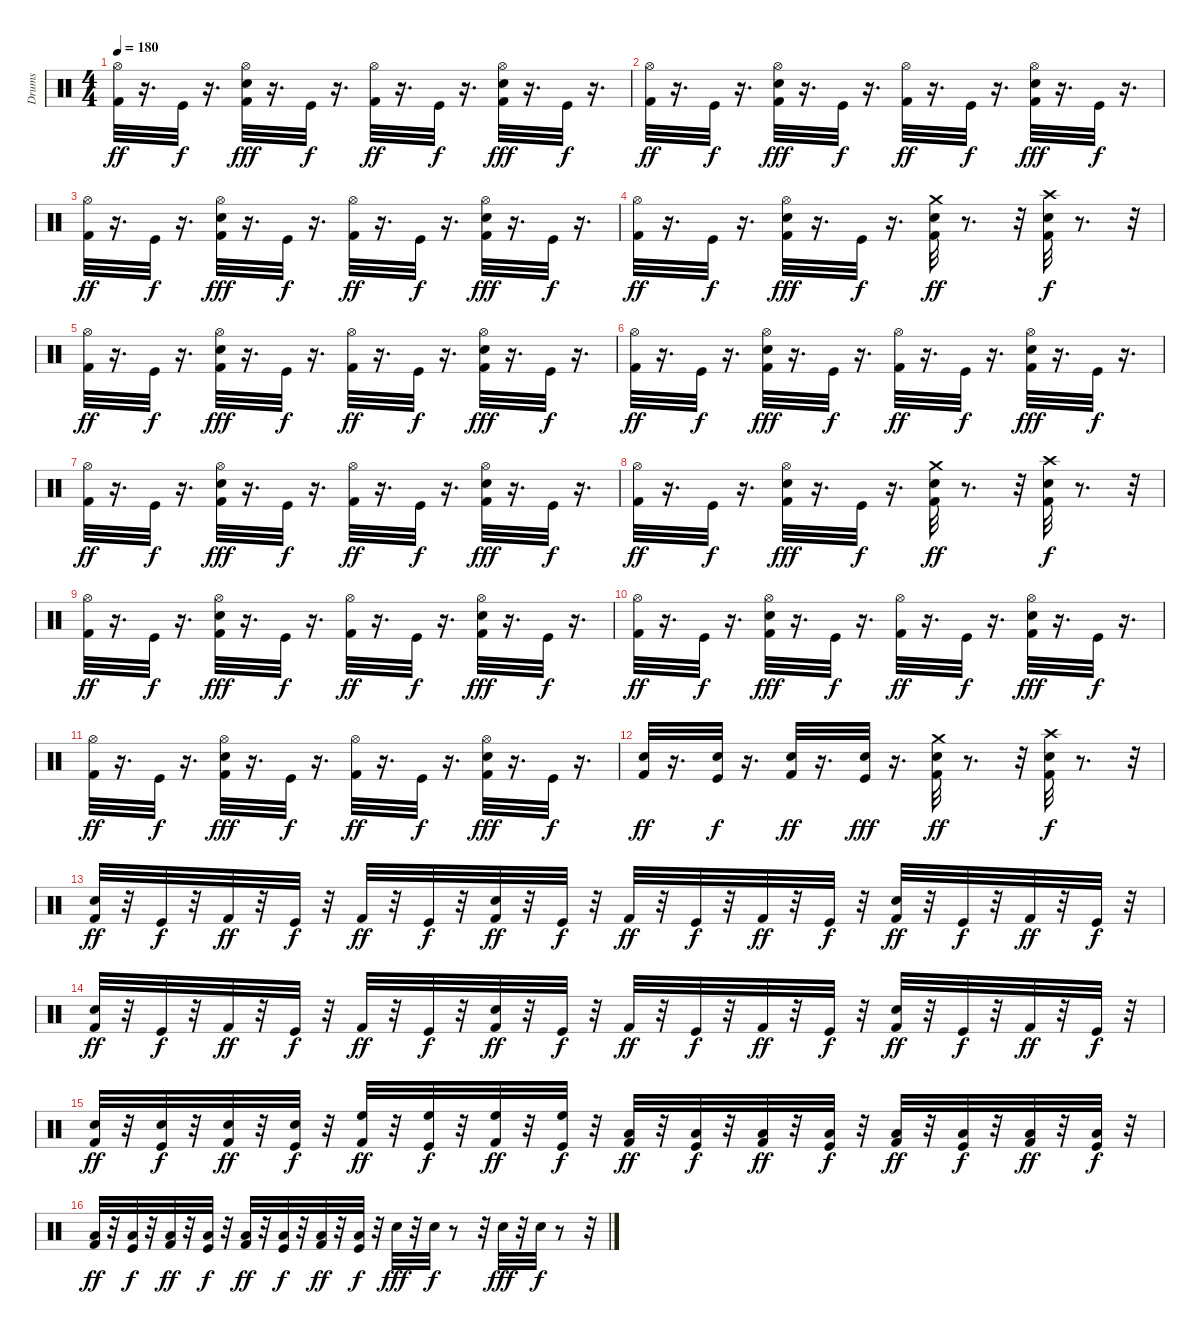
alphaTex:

\track ("Drums" "Drums") {instrument percussion}
\staff {score}
\articulation defaults
\ts (4 4)
\tempo 180
\clef neutral
\ks c
("Hi-Hat (open)" "Kick (hit) 2").32{dy ff} r.16{d} "Kick (hit)".32{dy f} r.16{d} ("Kick (hit) 2" "Snare (hit) 2" "Hi-Hat (open)").32{dy fff} r.16{d} "Kick (hit)".32{dy f} r.16{d} ("Kick (hit) 2" "Hi-Hat (open)").32{dy ff} r.16{d} "Kick (hit)".32{dy f} r.16{d} ("Kick (hit) 2" "Snare (hit) 2" "Hi-Hat (open)").32{dy fff} r.16{d} "Kick (hit)".32{dy f} r.16{d} |
("Kick (hit) 2" "Hi-Hat (open)").32{dy ff} r.16{d} "Kick (hit)".32{dy f} r.16{d} ("Kick (hit) 2" "Snare (hit) 2" "Hi-Hat (open)").32{dy fff} r.16{d} "Kick (hit)".32{dy f} r.16{d} ("Kick (hit) 2" "Hi-Hat (open)").32{dy ff} r.16{d} "Kick (hit)".32{dy f} r.16{d} ("Kick (hit) 2" "Snare (hit) 2" "Hi-Hat (open)").32{dy fff} r.16{d} "Kick (hit)".32{dy f} r.16{d} |
("Kick (hit) 2" "Hi-Hat (open)").32{dy ff} r.16{d} "Kick (hit)".32{dy f} r.16{d} ("Kick (hit) 2" "Snare (hit) 2" "Hi-Hat (open)").32{dy fff} r.16{d} "Kick (hit)".32{dy f} r.16{d} ("Kick (hit) 2" "Hi-Hat (open)").32{dy ff} r.16{d} "Kick (hit)".32{dy f} r.16{d} ("Kick (hit) 2" "Snare (hit) 2" "Hi-Hat (open)").32{dy fff} r.16{d} "Kick (hit)".32{dy f} r.16{d} |
("Kick (hit) 2" "Hi-Hat (open)").32{dy ff} r.16{d} "Kick (hit)".32{dy f} r.16{d} ("Kick (hit) 2" "Snare (hit) 2" "Hi-Hat (open)").32{dy fff} r.16{d} "Kick (hit)".32{dy f} r.16{d} ("Crash medium (hit)" "Snare (hit) 2" "Kick (hit) 2").32{dy ff} r.8{d} r.32 ("Crash high (hit)" "Snare (hit) 2" "Kick (hit) 2").32{dy f} r.8{d} r.32 |
("Hi-Hat (open)" "Kick (hit) 2").32{dy ff} r.16{d} "Kick (hit)".32{dy f} r.16{d} ("Kick (hit) 2" "Snare (hit) 2" "Hi-Hat (open)").32{dy fff} r.16{d} "Kick (hit)".32{dy f} r.16{d} ("Kick (hit) 2" "Hi-Hat (open)").32{dy ff} r.16{d} "Kick (hit)".32{dy f} r.16{d} ("Kick (hit) 2" "Snare (hit) 2" "Hi-Hat (open)").32{dy fff} r.16{d} "Kick (hit)".32{dy f} r.16{d} |
("Kick (hit) 2" "Hi-Hat (open)").32{dy ff} r.16{d} "Kick (hit)".32{dy f} r.16{d} ("Kick (hit) 2" "Snare (hit) 2" "Hi-Hat (open)").32{dy fff} r.16{d} "Kick (hit)".32{dy f} r.16{d} ("Kick (hit) 2" "Hi-Hat (open)").32{dy ff} r.16{d} "Kick (hit)".32{dy f} r.16{d} ("Kick (hit) 2" "Snare (hit) 2" "Hi-Hat (open)").32{dy fff} r.16{d} "Kick (hit)".32{dy f} r.16{d} |
("Kick (hit) 2" "Hi-Hat (open)").32{dy ff} r.16{d} "Kick (hit)".32{dy f} r.16{d} ("Kick (hit) 2" "Snare (hit) 2" "Hi-Hat (open)").32{dy fff} r.16{d} "Kick (hit)".32{dy f} r.16{d} ("Kick (hit) 2" "Hi-Hat (open)").32{dy ff} r.16{d} "Kick (hit)".32{dy f} r.16{d} ("Kick (hit) 2" "Snare (hit) 2" "Hi-Hat (open)").32{dy fff} r.16{d} "Kick (hit)".32{dy f} r.16{d} |
("Kick (hit) 2" "Hi-Hat (open)").32{dy ff} r.16{d} "Kick (hit)".32{dy f} r.16{d} ("Kick (hit) 2" "Snare (hit) 2" "Hi-Hat (open)").32{dy fff} r.16{d} "Kick (hit)".32{dy f} r.16{d} ("Crash medium (hit)" "Snare (hit) 2" "Kick (hit) 2").32{dy ff} r.8{d} r.32 ("Crash high (hit)" "Snare (hit) 2" "Kick (hit) 2").32{dy f} r.8{d} r.32 |
("Hi-Hat (open)" "Kick (hit) 2").32{dy ff} r.16{d} "Kick (hit)".32{dy f} r.16{d} ("Kick (hit) 2" "Snare (hit) 2" "Hi-Hat (open)").32{dy fff} r.16{d} "Kick (hit)".32{dy f} r.16{d} ("Kick (hit) 2" "Hi-Hat (open)").32{dy ff} r.16{d} "Kick (hit)".32{dy f} r.16{d} ("Kick (hit) 2" "Snare (hit) 2" "Hi-Hat (open)").32{dy fff} r.16{d} "Kick (hit)".32{dy f} r.16{d} |
("Kick (hit) 2" "Hi-Hat (open)").32{dy ff} r.16{d} "Kick (hit)".32{dy f} r.16{d} ("Kick (hit) 2" "Snare (hit) 2" "Hi-Hat (open)").32{dy fff} r.16{d} "Kick (hit)".32{dy f} r.16{d} ("Kick (hit) 2" "Hi-Hat (open)").32{dy ff} r.16{d} "Kick (hit)".32{dy f} r.16{d} ("Kick (hit) 2" "Snare (hit) 2" "Hi-Hat (open)").32{dy fff} r.16{d} "Kick (hit)".32{dy f} r.16{d} |
("Kick (hit) 2" "Hi-Hat (open)").32{dy ff} r.16{d} "Kick (hit)".32{dy f} r.16{d} ("Kick (hit) 2" "Snare (hit) 2" "Hi-Hat (open)").32{dy fff} r.16{d} "Kick (hit)".32{dy f} r.16{d} ("Kick (hit) 2" "Hi-Hat (open)").32{dy ff} r.16{d} "Kick (hit)".32{dy f} r.16{d} ("Kick (hit) 2" "Snare (hit) 2" "Hi-Hat (open)").32{dy fff} r.16{d} "Kick (hit)".32{dy f} r.16{d} |
("Snare (hit) 2" "Kick (hit) 2").32{dy ff} r.16{d} ("Snare (hit) 2" "Kick (hit)").32{dy f} r.16{d} ("Kick (hit) 2" "Snare (hit) 2").32{dy ff} r.16{d} ("Snare (hit) 2" "Kick (hit)").32{dy fff} r.16{d} ("Crash medium (hit)" "Snare (hit) 2" "Kick (hit) 2").32{dy ff} r.8{d} r.32 ("Crash high (hit)" "Snare (hit) 2" "Kick (hit) 2").32{dy f} r.8{d} r.32 |
("Snare (hit) 2" "Kick (hit) 2").32{dy ff} r.32 "Kick (hit)".32{dy f} r.32 "Kick (hit) 2".32{dy ff} r.32 "Kick (hit)".32{dy f} r.32 "Kick (hit) 2".32{dy ff} r.32 "Kick (hit)".32{dy f} r.32 ("Snare (hit) 2" "Kick (hit) 2").32{dy ff} r.32 "Kick (hit)".32{dy f} r.32 "Kick (hit) 2".32{dy ff} r.32 "Kick (hit)".32{dy f} r.32 "Kick (hit) 2".32{dy ff} r.32 "Kick (hit)".32{dy f} r.32 ("Snare (hit) 2" "Kick (hit) 2").32{dy ff} r.32 "Kick (hit)".32{dy f} r.32 "Kick (hit) 2".32{dy ff} r.32 "Kick (hit)".32{dy f} r.32 |
("Snare (hit) 2" "Kick (hit) 2").32{dy ff} r.32 "Kick (hit)".32{dy f} r.32 "Kick (hit) 2".32{dy ff} r.32 "Kick (hit)".32{dy f} r.32 "Kick (hit) 2".32{dy ff} r.32 "Kick (hit)".32{dy f} r.32 ("Snare (hit) 2" "Kick (hit) 2").32{dy ff} r.32 "Kick (hit)".32{dy f} r.32 "Kick (hit) 2".32{dy ff} r.32 "Kick (hit)".32{dy f} r.32 "Kick (hit) 2".32{dy ff} r.32 "Kick (hit)".32{dy f} r.32 ("Snare (hit) 2" "Kick (hit) 2").32{dy ff} r.32 "Kick (hit)".32{dy f} r.32 "Kick (hit) 2".32{dy ff} r.32 "Kick (hit)".32{dy f} r.32 |
("Snare (hit) 2" "Kick (hit) 2").32{dy ff} r.32 ("Snare (hit) 2" "Kick (hit)").32{dy f} r.32 ("Snare (hit) 2" "Kick (hit) 2").32{dy ff} r.32 ("Snare (hit) 2" "Kick (hit)").32{dy f} r.32 ("High Floor Tom (hit)" "Kick (hit) 2").32{dy ff} r.32 ("High Floor Tom (hit)" "Kick (hit)").32{dy f} r.32 ("High Floor Tom (hit)" "Kick (hit) 2").32{dy ff} r.32 ("High Floor Tom (hit)" "Kick (hit)").32{dy f} r.32 ("Low Tom (hit)" "Kick (hit) 2").32{dy ff} r.32 ("Low Tom (hit)" "Kick (hit)").32{dy f} r.32 ("Low Tom (hit)" "Kick (hit) 2").32{dy ff} r.32 ("Low Tom (hit)" "Kick (hit)").32{dy f} r.32 ("Low Tom (hit)" "Kick (hit) 2").32{dy ff} r.32 ("Low Tom (hit)" "Kick (hit)").32{dy f} r.32 ("Low Tom (hit)" "Kick (hit) 2").32{dy ff} r.32 ("Low Tom (hit)" "Kick (hit)").32{dy f} r.32 |
("Low Floor Tom (hit)" "Kick (hit) 2").32{dy ff} r.32 ("Low Floor Tom (hit)" "Kick (hit)").32{dy f} r.32 ("Low Floor Tom (hit)" "Kick (hit) 2").32{dy ff} r.32 ("Low Floor Tom (hit)" "Kick (hit)").32{dy f} r.32 ("Low Floor Tom (hit)" "Kick (hit) 2").32{dy ff} r.32 ("Low Floor Tom (hit)" "Kick (hit)").32{dy f} r.32 ("Low Floor Tom (hit)" "Kick (hit) 2").32{dy ff} r.32 ("Low Floor Tom (hit)" "Kick (hit)").32{dy f} r.32 "Snare (hit) 2".32{dy fff} r.32 "Snare (hit) 2".32{dy f} r.8 r.32 "Snare (hit) 2".32{dy fff} r.32 "Snare (hit) 2".32{dy f} r.8 r.32
